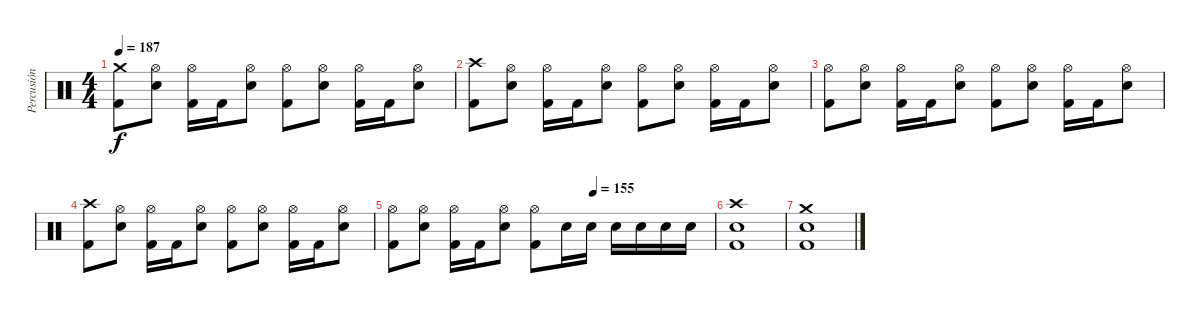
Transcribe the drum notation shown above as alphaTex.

\track ("Percusión" "Percusión") {instrument percussion}
\staff {score}
\articulation defaults
\ts (4 4)
\tempo 187
\clef neutral
\ks c
("Crash medium (hit)" "Kick (hit) 2").8{dy f} ("Hi-Hat (open)" "Electric Snare (hit)").8 ("Hi-Hat (open)" "Kick (hit) 2").16 "Kick (hit) 2".16 ("Hi-Hat (open)" "Electric Snare (hit)").8 ("Hi-Hat (open)" "Kick (hit) 2").8 ("Hi-Hat (open)" "Electric Snare (hit)").8 ("Hi-Hat (open)" "Kick (hit) 2").16 "Kick (hit) 2".16 ("Hi-Hat (open)" "Electric Snare (hit)").8 |
("Crash high (hit)" "Kick (hit) 2").8 ("Hi-Hat (open)" "Electric Snare (hit)").8 ("Hi-Hat (open)" "Kick (hit) 2").16 "Kick (hit) 2".16 ("Hi-Hat (open)" "Electric Snare (hit)").8 ("Hi-Hat (open)" "Kick (hit) 2").8 ("Hi-Hat (open)" "Electric Snare (hit)").8 ("Hi-Hat (open)" "Kick (hit) 2").16 "Kick (hit) 2".16 ("Hi-Hat (open)" "Electric Snare (hit)").8 |
("Hi-Hat (open)" "Kick (hit) 2").8 ("Hi-Hat (open)" "Electric Snare (hit)").8 ("Hi-Hat (open)" "Kick (hit) 2").16 "Kick (hit) 2".16 ("Hi-Hat (open)" "Electric Snare (hit)").8 ("Hi-Hat (open)" "Kick (hit) 2").8 ("Hi-Hat (open)" "Electric Snare (hit)").8 ("Hi-Hat (open)" "Kick (hit) 2").16 "Kick (hit) 2".16 ("Hi-Hat (open)" "Electric Snare (hit)").8 |
("Crash high (hit)" "Kick (hit) 2").8 ("Hi-Hat (open)" "Electric Snare (hit)").8 ("Hi-Hat (open)" "Kick (hit) 2").16 "Kick (hit) 2".16 ("Hi-Hat (open)" "Electric Snare (hit)").8 ("Hi-Hat (open)" "Kick (hit) 2").8 ("Hi-Hat (open)" "Electric Snare (hit)").8 ("Hi-Hat (open)" "Kick (hit) 2").16 "Kick (hit) 2".16 ("Hi-Hat (open)" "Electric Snare (hit)").8 |
\tempo (155 0.625)
("Hi-Hat (open)" "Kick (hit) 2").8 ("Hi-Hat (open)" "Electric Snare (hit)").8 ("Hi-Hat (open)" "Kick (hit) 2").16 "Kick (hit) 2".16 ("Hi-Hat (open)" "Electric Snare (hit)").8 ("Hi-Hat (open)" "Kick (hit) 2").8 "Electric Snare (hit)".16 "Electric Snare (hit)".16 "Electric Snare (hit)".16 "Electric Snare (hit)".16 "Electric Snare (hit)".16 "Electric Snare (hit)".16 |
("Crash high (hit)" "Electric Snare (hit)" "Kick (hit) 2").1 |
("Crash medium (hit)" "Electric Snare (hit)" "Kick (hit) 2").1
